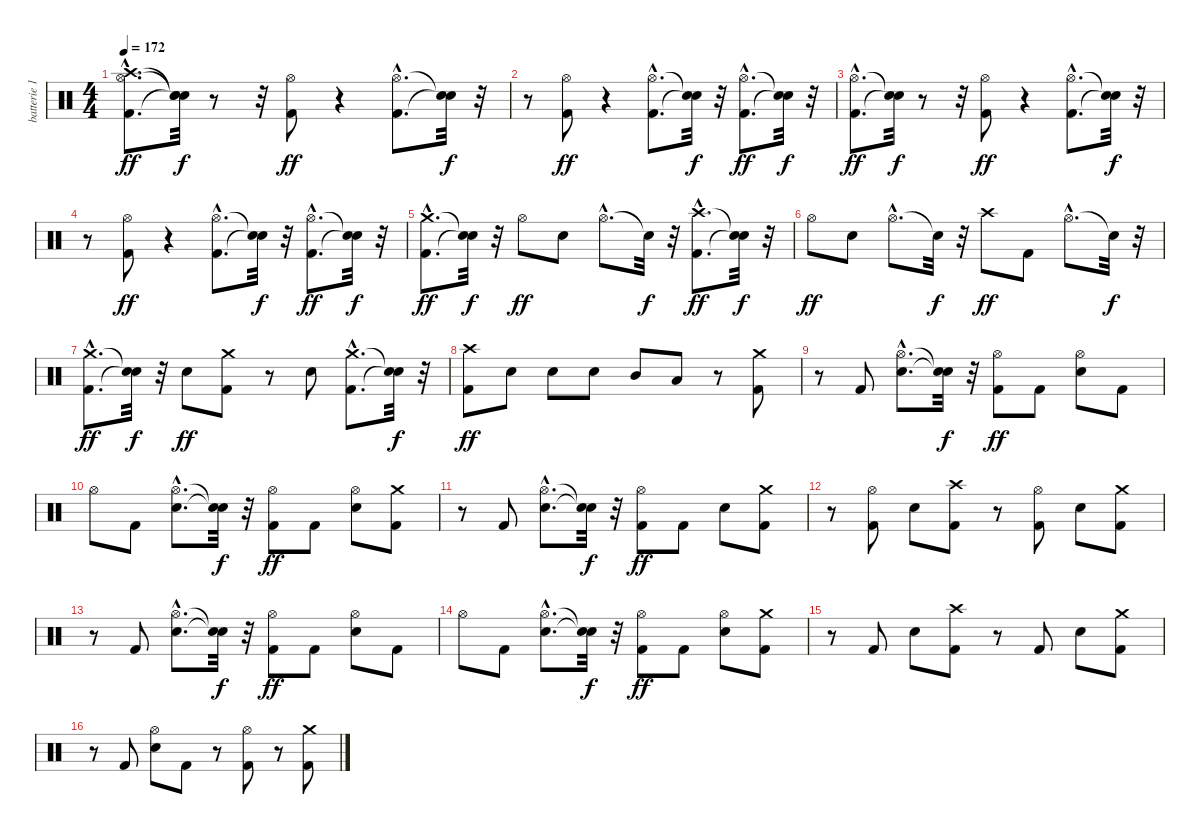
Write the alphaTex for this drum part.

\track ("batterie 1" "batterie 1") {instrument percussion}
\staff {score}
\articulation defaults
\ts (4 4)
\tempo 172
\clef neutral
\ks c
("Kick (hit) 2"{hac} "Hi-Hat (open)"{hac} "Crash high (hit)"{hac}).8{d dy ff} ("Snare (hit)"{t} "Snare (hit)"{t} "Snare (hit)"{t}).32{dy f} r.8 r.32 ("Kick (hit) 2" "Hi-Hat (open)").8{dy ff} r.4 ("Kick (hit) 2"{hac} "Hi-Hat (open)"{hac}).8{d} ("Snare (hit)"{t} "Snare (hit)"{t}).32{dy f} r.32 |
r.8 ("Kick (hit) 2" "Hi-Hat (open)").8{dy ff} r.4 ("Kick (hit) 2"{hac} "Hi-Hat (open)"{hac}).8{d} ("Snare (hit)"{t} "Snare (hit)"{t}).32{dy f} r.32 ("Kick (hit) 2"{hac} "Hi-Hat (open)"{hac}).8{d dy ff} ("Snare (hit)"{t} "Snare (hit)"{t}).32{dy f} r.32 |
("Kick (hit) 2"{hac} "Hi-Hat (open)"{hac}).8{d dy ff} ("Snare (hit)"{t} "Snare (hit)"{t}).32{dy f} r.8 r.32 ("Kick (hit) 2" "Hi-Hat (open)").8{dy ff} r.4 ("Kick (hit) 2"{hac} "Hi-Hat (open)"{hac}).8{d} ("Snare (hit)"{t} "Snare (hit)"{t}).32{dy f} r.32 |
r.8 ("Kick (hit) 2" "Hi-Hat (open)").8{dy ff} r.4 ("Kick (hit) 2"{hac} "Hi-Hat (open)"{hac}).8{d} ("Snare (hit)"{t} "Snare (hit)"{t}).32{dy f} r.32 ("Kick (hit) 2"{hac} "Hi-Hat (open)"{hac}).8{d dy ff} ("Snare (hit)"{t} "Snare (hit)"{t}).32{dy f} r.32 |
("Kick (hit) 2"{hac} "Crash medium (hit)"{hac}).8{d dy ff} ("Snare (hit)"{t} "Snare (hit)"{t}).32{dy f} r.32 "Hi-Hat (open)".8{dy ff} "Electric Snare (hit)".8 "Hi-Hat (open)"{hac}.8{d} "Snare (hit)"{t}.32{dy f} r.32 ("Kick (hit) 2"{hac} "Crash high (hit)"{hac}).8{d dy ff} ("Snare (hit)"{t} "Snare (hit)"{t}).32{dy f} r.32 |
"Hi-Hat (open)".8{dy ff} "Electric Snare (hit)".8 "Hi-Hat (open)"{hac}.8{d} "Snare (hit)"{t}.32{dy f} r.32 "Crash high (hit)".8{dy ff} "Kick (hit) 2".8 "Hi-Hat (open)"{hac}.8{d} "Snare (hit)"{t}.32{dy f} r.32 |
("Kick (hit) 2"{hac} "Crash medium (hit)"{hac}).8{d dy ff} ("Snare (hit)"{t} "Snare (hit)"{t}).32{dy f} r.32 "Electric Snare (hit)".8{dy ff} ("Kick (hit) 2" "Crash medium (hit)").8 r.8 "Electric Snare (hit)".8 ("Kick (hit) 2"{hac} "Crash medium (hit)"{hac}).8{d} ("Snare (hit)"{t} "Snare (hit)"{t}).32{dy f} r.32 |
("Kick (hit) 2" "Crash high (hit)").8{dy ff} "Electric Snare (hit)".8 "Electric Snare (hit)".8 "Electric Snare (hit)".8 "Mid Tom (hit)".8 "Low Tom (hit)".8 r.8 ("Kick (hit) 2" "Crash medium (hit)").8 |
r.8 "Kick (hit) 2".8 ("Electric Snare (hit)"{hac} "Hi-Hat (open)"{hac}).8{d} ("Snare (hit)"{t} "Snare (hit)"{t}).32{dy f} r.32 ("Kick (hit) 2" "Hi-Hat (open)").8{dy ff} "Kick (hit) 2".8 ("Electric Snare (hit)" "Hi-Hat (open)").8 "Kick (hit) 2".8 |
"Hi-Hat (open)".8 "Kick (hit) 2".8 ("Electric Snare (hit)"{hac} "Hi-Hat (open)"{hac}).8{d} ("Snare (hit)"{t} "Snare (hit)"{t}).32{dy f} r.32 ("Kick (hit) 2" "Hi-Hat (open)").8{dy ff} "Kick (hit) 2".8 ("Electric Snare (hit)" "Hi-Hat (open)").8 ("Kick (hit) 2" "Crash medium (hit)").8 |
r.8 "Kick (hit) 2".8 ("Electric Snare (hit)"{hac} "Hi-Hat (open)"{hac}).8{d} ("Snare (hit)"{t} "Snare (hit)"{t}).32{dy f} r.32 ("Kick (hit) 2" "Hi-Hat (open)").8{dy ff} "Kick (hit) 2".8 "Electric Snare (hit)".8 ("Kick (hit) 2" "Crash medium (hit)").8 |
r.8 ("Kick (hit) 2" "Hi-Hat (open)").8 "Electric Snare (hit)".8 ("Kick (hit) 2" "Crash high (hit)").8 r.8 ("Kick (hit) 2" "Hi-Hat (open)").8 "Electric Snare (hit)".8 ("Kick (hit) 2" "Crash medium (hit)").8 |
r.8 "Kick (hit) 2".8 ("Electric Snare (hit)"{hac} "Hi-Hat (open)"{hac}).8{d} ("Snare (hit)"{t} "Snare (hit)"{t}).32{dy f} r.32 ("Kick (hit) 2" "Hi-Hat (open)").8{dy ff} "Kick (hit) 2".8 ("Electric Snare (hit)" "Hi-Hat (open)").8 "Kick (hit) 2".8 |
"Hi-Hat (open)".8 "Kick (hit) 2".8 ("Electric Snare (hit)"{hac} "Hi-Hat (open)"{hac}).8{d} ("Snare (hit)"{t} "Snare (hit)"{t}).32{dy f} r.32 ("Kick (hit) 2" "Hi-Hat (open)").8{dy ff} "Kick (hit) 2".8 ("Electric Snare (hit)" "Hi-Hat (open)").8 ("Kick (hit) 2" "Crash medium (hit)").8 |
r.8 "Kick (hit) 2".8 "Electric Snare (hit)".8 ("Kick (hit) 2" "Crash high (hit)").8 r.8 "Kick (hit) 2".8 "Electric Snare (hit)".8 ("Kick (hit) 2" "Crash medium (hit)").8 |
r.8 "Kick (hit) 2".8 ("Electric Snare (hit)" "Hi-Hat (open)").8 "Kick (hit) 2".8 r.8 ("Kick (hit) 2" "Hi-Hat (open)").8 r.8 ("Kick (hit) 2" "Crash medium (hit)").8
